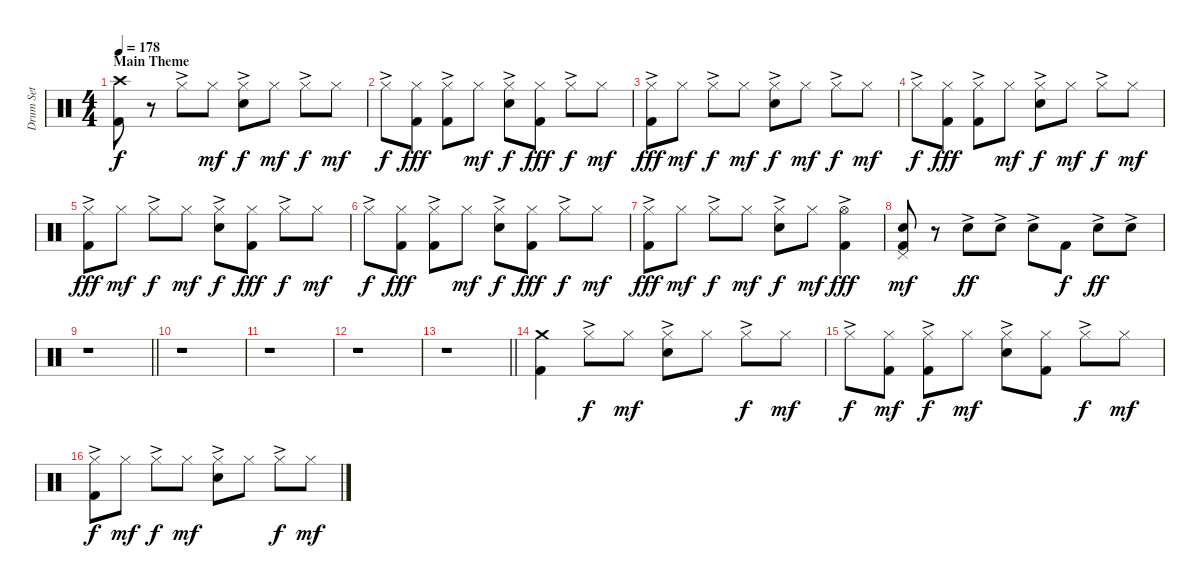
\track ("Drum Set" "Drum Set") {instrument percussion}
\staff {score}
\articulation defaults
\ts (4 4)
\section ("" "Main Theme")
\tempo 178
\clef neutral
\ks c
("Crash high (hit)" "Kick (hit) 2").8{dy f} r.8 "Hi-Hat (closed)"{ac}.8 "Hi-Hat (closed)".8{dy mf} ("Hi-Hat (closed)"{ac} "Electric Snare (hit)").8{dy f} "Hi-Hat (closed)".8{dy mf} "Hi-Hat (closed)"{ac}.8{dy f} "Hi-Hat (closed)".8{dy mf} |
"Hi-Hat (closed)"{ac}.8{dy f} ("Hi-Hat (closed)" "Kick (hit) 2").8{dy fff} ("Hi-Hat (closed)"{ac} "Kick (hit) 2").8 "Hi-Hat (closed)".8{dy mf} ("Hi-Hat (closed)"{ac} "Electric Snare (hit)").8{dy f} ("Hi-Hat (closed)" "Kick (hit) 2").8{dy fff} "Hi-Hat (closed)"{ac}.8{dy f} "Hi-Hat (closed)".8{dy mf} |
("Hi-Hat (closed)"{ac} "Kick (hit) 2").8{dy fff} "Hi-Hat (closed)".8{dy mf} "Hi-Hat (closed)"{ac}.8{dy f} "Hi-Hat (closed)".8{dy mf} ("Hi-Hat (closed)"{ac} "Electric Snare (hit)").8{dy f} "Hi-Hat (closed)".8{dy mf} "Hi-Hat (closed)"{ac}.8{dy f} "Hi-Hat (closed)".8{dy mf} |
"Hi-Hat (closed)"{ac}.8{dy f} ("Hi-Hat (closed)" "Kick (hit) 2").8{dy fff} ("Hi-Hat (closed)"{ac} "Kick (hit) 2").8 "Hi-Hat (closed)".8{dy mf} ("Hi-Hat (closed)"{ac} "Electric Snare (hit)").8{dy f} "Hi-Hat (closed)".8{dy mf} "Hi-Hat (closed)"{ac}.8{dy f} "Hi-Hat (closed)".8{dy mf} |
("Hi-Hat (closed)"{ac} "Kick (hit) 2").8{dy fff} "Hi-Hat (closed)".8{dy mf} "Hi-Hat (closed)"{ac}.8{dy f} "Hi-Hat (closed)".8{dy mf} ("Hi-Hat (closed)"{ac} "Electric Snare (hit)").8{dy f} ("Hi-Hat (closed)" "Kick (hit) 2").8{dy fff} "Hi-Hat (closed)"{ac}.8{dy f} "Hi-Hat (closed)".8{dy mf} |
"Hi-Hat (closed)"{ac}.8{dy f} ("Hi-Hat (closed)" "Kick (hit) 2").8{dy fff} ("Hi-Hat (closed)"{ac} "Kick (hit) 2").8 "Hi-Hat (closed)".8{dy mf} ("Hi-Hat (closed)"{ac} "Electric Snare (hit)").8{dy f} ("Hi-Hat (closed)" "Kick (hit) 2").8{dy fff} "Hi-Hat (closed)"{ac}.8{dy f} "Hi-Hat (closed)".8{dy mf} |
("Hi-Hat (closed)"{ac} "Kick (hit) 2").8{dy fff} "Hi-Hat (closed)".8{dy mf} "Hi-Hat (closed)"{ac}.8{dy f} "Hi-Hat (closed)".8{dy mf} ("Hi-Hat (closed)"{ac} "Electric Snare (hit)").8{dy f} "Hi-Hat (closed)".8{dy mf} ("Hi-Hat (open)"{ac} "Kick (hit) 2").4{dy fff} |
("Pedal Hi-Hat (hit)" "Electric Snare (hit)" "Kick (hit) 2").8{dy mf} r.8 "Electric Snare (hit)"{ac}.8{dy ff} "Electric Snare (hit)"{ac}.8 "Electric Snare (hit)"{ac}.8{beam Down} "Kick (hit) 2".8{dy f beam Down} "Electric Snare (hit)"{ac}.8{dy ff} "Electric Snare (hit)"{ac}.8 |
\barLineRight lightlight
r.1 |
r.1 |
r.1 |
r.1 |
\barLineRight lightlight
r.1 |
("Crash medium (hit)" "Kick (hit) 2").4 "Hi-Hat (closed)"{ac}.8{dy f} "Hi-Hat (closed)".8{dy mf} ("Hi-Hat (closed)"{ac} "Electric Snare (hit)").8 "Hi-Hat (closed)".8 "Hi-Hat (closed)"{ac}.8{dy f} "Hi-Hat (closed)".8{dy mf} |
"Hi-Hat (closed)"{ac}.8{dy f} ("Hi-Hat (closed)" "Kick (hit) 2").8{dy mf} ("Hi-Hat (closed)"{ac} "Kick (hit) 2").8{dy f} "Hi-Hat (closed)".8{dy mf} ("Hi-Hat (closed)"{ac} "Electric Snare (hit)").8 ("Hi-Hat (closed)" "Kick (hit) 2").8 "Hi-Hat (closed)"{ac}.8{dy f} "Hi-Hat (closed)".8{dy mf} |
("Hi-Hat (closed)"{ac} "Kick (hit) 2").8{dy f} "Hi-Hat (closed)".8{dy mf} "Hi-Hat (closed)"{ac}.8{dy f} "Hi-Hat (closed)".8{dy mf} ("Hi-Hat (closed)"{ac} "Electric Snare (hit)").8 "Hi-Hat (closed)".8 "Hi-Hat (closed)"{ac}.8{dy f} "Hi-Hat (closed)".8{dy mf}
